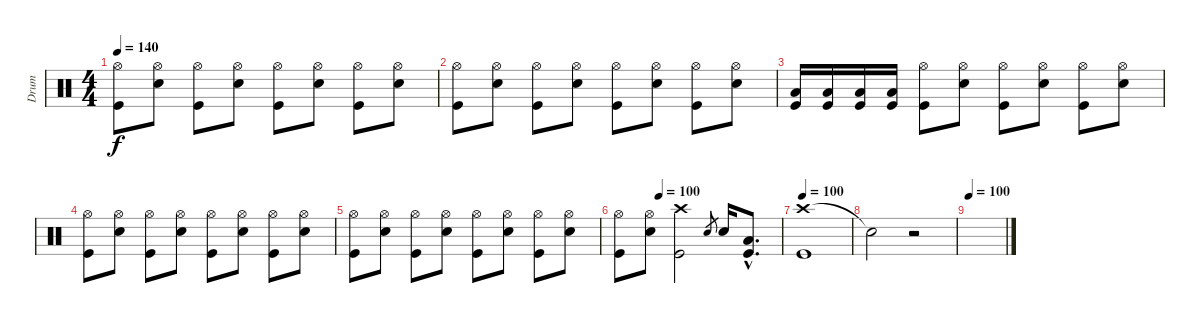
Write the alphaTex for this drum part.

\track ("Drum" "Drum") {instrument percussion}
\staff {score}
\articulation defaults
\ts (4 4)
\tempo 140
\clef neutral
\ks c
("Hi-Hat (open)" "Kick (hit)").8{dy f} ("Hi-Hat (open)" "Snare (hit) 2").8 ("Hi-Hat (open)" "Kick (hit)").8 ("Hi-Hat (open)" "Snare (hit) 2").8 ("Hi-Hat (open)" "Kick (hit)").8 ("Hi-Hat (open)" "Snare (hit) 2").8 ("Hi-Hat (open)" "Kick (hit)").8 ("Hi-Hat (open)" "Snare (hit) 2").8 |
("Hi-Hat (open)" "Kick (hit)").8 ("Hi-Hat (open)" "Snare (hit) 2").8 ("Hi-Hat (open)" "Kick (hit)").8 ("Hi-Hat (open)" "Snare (hit) 2").8 ("Hi-Hat (open)" "Kick (hit)").8 ("Hi-Hat (open)" "Snare (hit) 2").8 ("Hi-Hat (open)" "Kick (hit)").8 ("Hi-Hat (open)" "Snare (hit) 2").8 |
("Low Floor Tom (hit)" "Kick (hit)").16 ("Low Floor Tom (hit)" "Kick (hit)").16 ("Low Floor Tom (hit)" "Kick (hit)").16 ("Low Floor Tom (hit)" "Kick (hit)").16 ("Hi-Hat (open)" "Kick (hit)").8 ("Hi-Hat (open)" "Snare (hit) 2").8 ("Hi-Hat (open)" "Kick (hit)").8 ("Hi-Hat (open)" "Snare (hit) 2").8 ("Hi-Hat (open)" "Kick (hit)").8 ("Hi-Hat (open)" "Snare (hit) 2").8 |
("Hi-Hat (open)" "Kick (hit)").8 ("Hi-Hat (open)" "Snare (hit) 2").8 ("Hi-Hat (open)" "Kick (hit)").8 ("Hi-Hat (open)" "Snare (hit) 2").8 ("Hi-Hat (open)" "Kick (hit)").8 ("Hi-Hat (open)" "Snare (hit) 2").8 ("Hi-Hat (open)" "Kick (hit)").8 ("Hi-Hat (open)" "Snare (hit) 2").8 |
("Hi-Hat (open)" "Kick (hit)").8 ("Hi-Hat (open)" "Snare (hit) 2").8 ("Hi-Hat (open)" "Kick (hit)").8 ("Hi-Hat (open)" "Snare (hit) 2").8 ("Hi-Hat (open)" "Kick (hit)").8 ("Hi-Hat (open)" "Snare (hit) 2").8 ("Hi-Hat (open)" "Kick (hit)").8 ("Hi-Hat (open)" "Snare (hit) 2").8 |
\tempo (100 0.25)
("Hi-Hat (open)" "Kick (hit)").8 ("Hi-Hat (open)" "Snare (hit) 2").8 ("Crash high (hit)" "Kick (hit)").2 "Snare (hit) 2".8{gr} "Snare (hit) 2".16 ("Low Floor Tom (hit)"{hac} "Kick (hit)"{hac}).8{d} |
\tempo 100
("Crash high (hit)" "Kick (hit)").1 |
"Snare (hit)"{t}.2 r.2 |
\tempo 100
